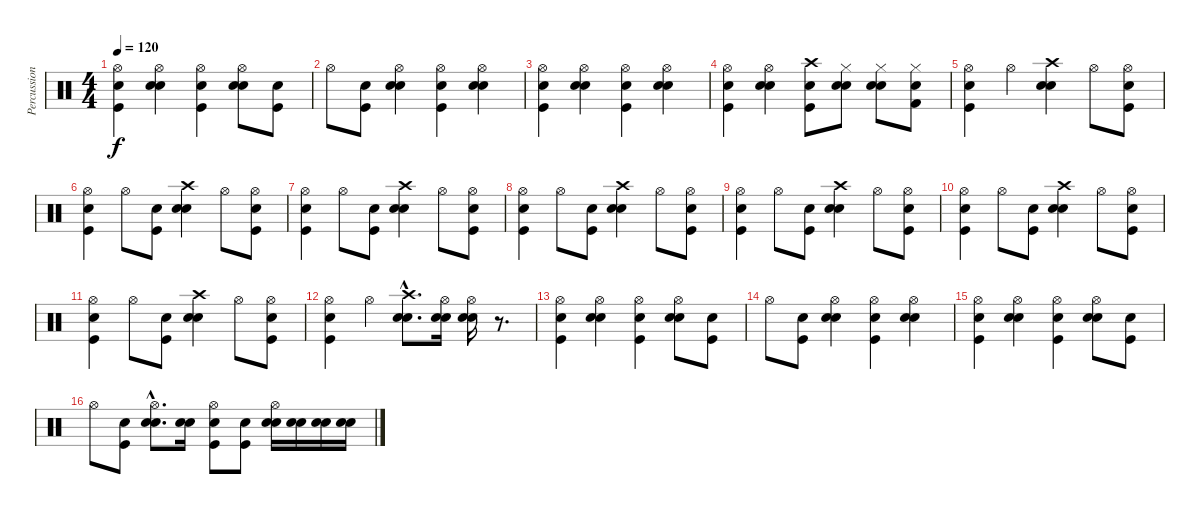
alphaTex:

\track ("Percussions" "Percussion") {instrument percussion}
\staff {score}
\articulation defaults
\ts (4 4)
\tempo 120
\clef neutral
\ks c
("Hi-Hat (open)" "Snare (hit) 2" "Kick (hit)").4{dy f} ("Hi-Hat (open)" "Snare (hit) 2" "Electric Snare (hit)").4 ("Hi-Hat (open)" "Snare (hit) 2" "Kick (hit)").4 ("Hi-Hat (open)" "Snare (hit) 2" "Electric Snare (hit)").8 ("Snare (hit) 2" "Kick (hit)").8 |
"Hi-Hat (open)".8 ("Snare (hit) 2" "Kick (hit)").8 ("Hi-Hat (open)" "Snare (hit) 2" "Electric Snare (hit)").4 ("Hi-Hat (open)" "Snare (hit) 2" "Kick (hit)").4 ("Hi-Hat (open)" "Snare (hit) 2" "Electric Snare (hit)").4 |
("Hi-Hat (open)" "Snare (hit) 2" "Kick (hit)").4 ("Hi-Hat (open)" "Snare (hit) 2" "Electric Snare (hit)").4 ("Hi-Hat (open)" "Snare (hit) 2" "Kick (hit)").4 ("Hi-Hat (open)" "Snare (hit) 2" "Electric Snare (hit)").4 |
("Hi-Hat (open)" "Snare (hit) 2" "Kick (hit)").4 ("Hi-Hat (open)" "Snare (hit) 2" "Electric Snare (hit)").4 ("Crash high (hit)" "Snare (hit) 2" "Kick (hit)").8 ("Hi-Hat (closed)" "Snare (hit) 2" "Electric Snare (hit)").8 ("Hi-Hat (closed)" "Snare (hit) 2" "Snare (hit) 2").8 ("Hi-Hat (closed)" "Snare (hit) 2" "Kick (hit) 2").8 |
("Hi-Hat (open)" "Snare (hit) 2" "Kick (hit)").4 "Hi-Hat (open)".4 ("Crash high (hit)" "Snare (hit) 2" "Electric Snare (hit)").4 "Hi-Hat (open)".8 ("Hi-Hat (open)" "Snare (hit) 2" "Kick (hit)").8 |
("Hi-Hat (open)" "Snare (hit) 2" "Kick (hit)").4 "Hi-Hat (open)".8 ("Snare (hit) 2" "Kick (hit)").8 ("Crash high (hit)" "Snare (hit) 2" "Electric Snare (hit)").4 "Hi-Hat (open)".8 ("Hi-Hat (open)" "Snare (hit) 2" "Kick (hit)").8 |
("Hi-Hat (open)" "Snare (hit) 2" "Kick (hit)").4 "Hi-Hat (open)".8 ("Snare (hit) 2" "Kick (hit)").8 ("Crash high (hit)" "Snare (hit) 2" "Electric Snare (hit)").4 "Hi-Hat (open)".8 ("Hi-Hat (open)" "Snare (hit) 2" "Kick (hit)").8 |
("Hi-Hat (open)" "Snare (hit) 2" "Kick (hit)").4 "Hi-Hat (open)".8 ("Snare (hit) 2" "Kick (hit)").8 ("Crash high (hit)" "Snare (hit) 2" "Electric Snare (hit)").4 "Hi-Hat (open)".8 ("Hi-Hat (open)" "Snare (hit) 2" "Kick (hit)").8 |
("Hi-Hat (open)" "Snare (hit) 2" "Kick (hit)").4 "Hi-Hat (open)".8 ("Snare (hit) 2" "Kick (hit)").8 ("Crash high (hit)" "Snare (hit) 2" "Electric Snare (hit)").4 "Hi-Hat (open)".8 ("Hi-Hat (open)" "Snare (hit) 2" "Kick (hit)").8 |
("Hi-Hat (open)" "Snare (hit) 2" "Kick (hit)").4 "Hi-Hat (open)".8 ("Snare (hit) 2" "Kick (hit)").8 ("Crash high (hit)" "Snare (hit) 2" "Electric Snare (hit)").4 "Hi-Hat (open)".8 ("Hi-Hat (open)" "Snare (hit) 2" "Kick (hit)").8 |
("Hi-Hat (open)" "Snare (hit) 2" "Kick (hit)").4 "Hi-Hat (open)".8 ("Snare (hit) 2" "Kick (hit)").8 ("Crash high (hit)" "Snare (hit) 2" "Electric Snare (hit)").4 "Hi-Hat (open)".8 ("Hi-Hat (open)" "Snare (hit) 2" "Kick (hit)").8 |
("Hi-Hat (open)" "Snare (hit) 2" "Kick (hit)").4 "Hi-Hat (open)".4 ("Crash high (hit)"{hac} "Snare (hit) 2"{hac} "Electric Snare (hit)"{hac}).8{d} ("Hi-Hat (open)" "Snare (hit) 2" "Electric Snare (hit)").16 ("Hi-Hat (open)" "Snare (hit) 2" "Electric Snare (hit)").16 r.8{d} |
("Hi-Hat (open)" "Snare (hit) 2" "Kick (hit)").4 ("Hi-Hat (open)" "Snare (hit) 2" "Electric Snare (hit)").4 ("Hi-Hat (open)" "Snare (hit) 2" "Kick (hit)").4 ("Hi-Hat (open)" "Snare (hit) 2" "Electric Snare (hit)").8 ("Snare (hit) 2" "Kick (hit)").8 |
"Hi-Hat (open)".8 ("Snare (hit) 2" "Kick (hit)").8 ("Hi-Hat (open)" "Snare (hit) 2" "Electric Snare (hit)").4 ("Hi-Hat (open)" "Snare (hit) 2" "Kick (hit)").4 ("Hi-Hat (open)" "Snare (hit) 2" "Electric Snare (hit)").4 |
("Hi-Hat (open)" "Snare (hit) 2" "Kick (hit)").4 ("Hi-Hat (open)" "Snare (hit) 2" "Electric Snare (hit)").4 ("Hi-Hat (open)" "Snare (hit) 2" "Kick (hit)").4 ("Hi-Hat (open)" "Snare (hit) 2" "Electric Snare (hit)").8 ("Snare (hit) 2" "Kick (hit)").8 |
"Hi-Hat (open)".8 ("Snare (hit) 2" "Kick (hit)").8 ("Hi-Hat (open)"{hac} "Snare (hit) 2"{hac} "Electric Snare (hit)"{hac}).8{d} ("Snare (hit) 2" "Electric Snare (hit)").16 ("Hi-Hat (open)" "Snare (hit) 2" "Kick (hit)").8 ("Snare (hit) 2" "Kick (hit)").8 ("Hi-Hat (open)" "Snare (hit) 2" "Electric Snare (hit)").16 ("Snare (hit) 2" "Electric Snare (hit)").16 ("Snare (hit) 2" "Electric Snare (hit)").16 ("Snare (hit) 2" "Electric Snare (hit)").16
